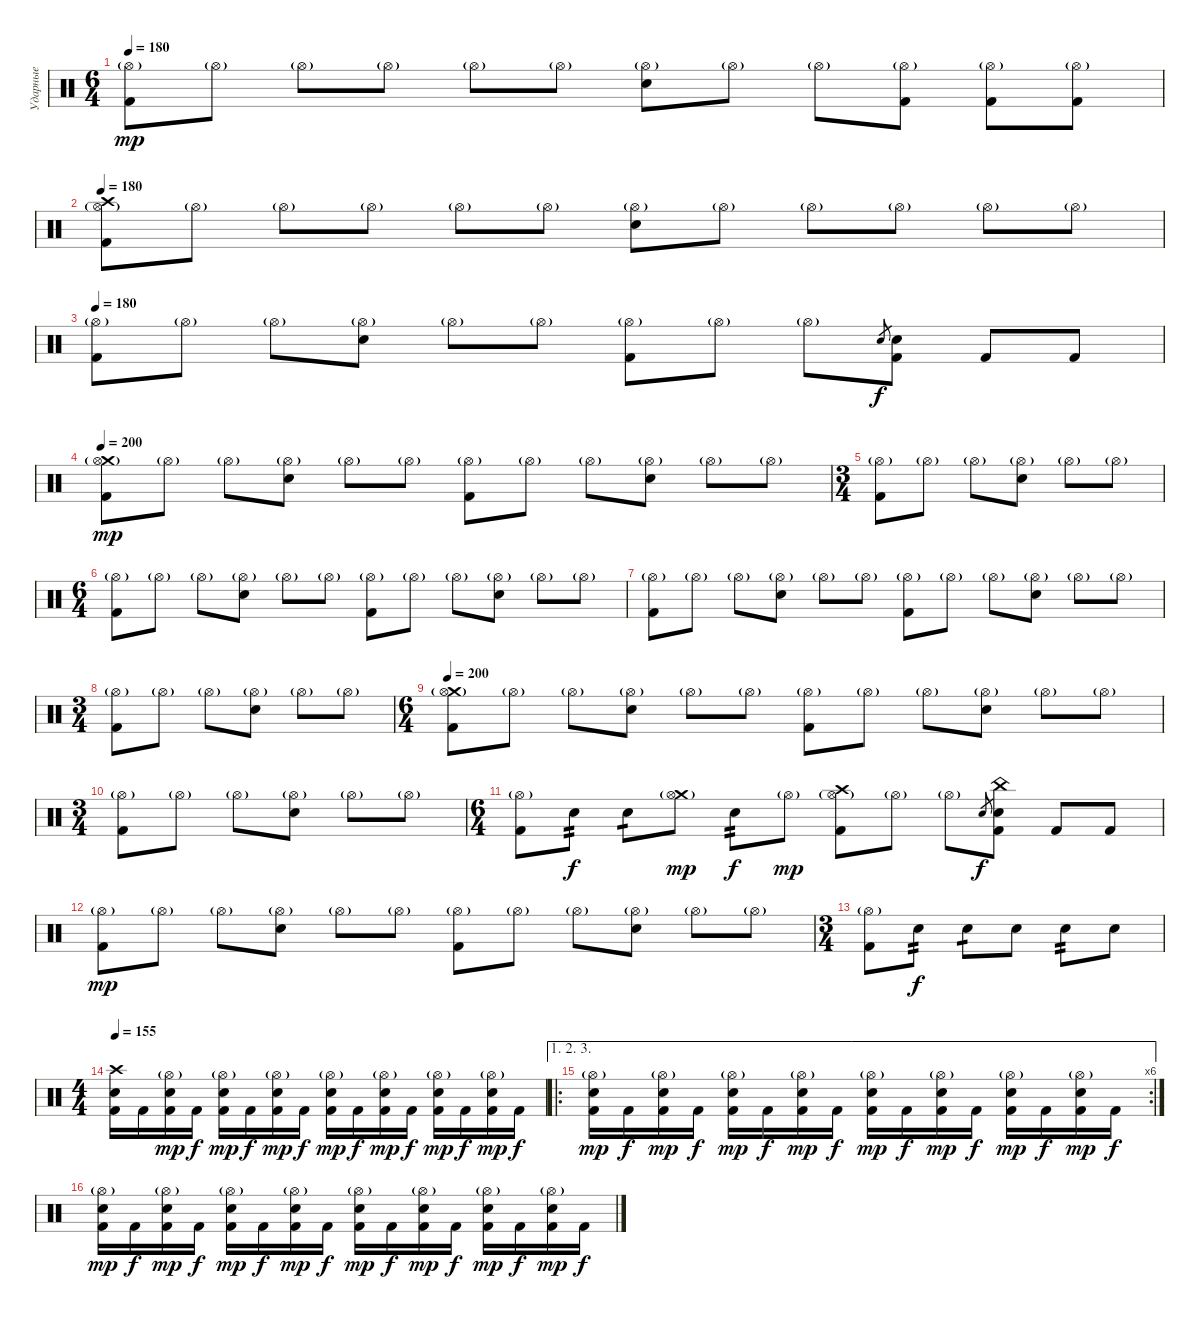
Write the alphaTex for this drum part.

\track ("Ударные" "Ударные") {instrument percussion}
\staff {score}
\articulation defaults
\ts (6 4)
\tempo 180
\clef neutral
\ks c
("Hi-Hat (open)"{g} "Kick (hit) 2").8{dy mp} "Hi-Hat (open)"{g}.8 "Hi-Hat (open)"{g}.8 "Hi-Hat (open)"{g}.8 "Hi-Hat (open)"{g}.8 "Hi-Hat (open)"{g}.8 ("Electric Snare (hit)" "Hi-Hat (open)"{g}).8 "Hi-Hat (open)"{g}.8 "Hi-Hat (open)"{g}.8 ("Hi-Hat (open)"{g} "Kick (hit) 2").8 ("Hi-Hat (open)"{g} "Kick (hit) 2").8 ("Hi-Hat (open)"{g} "Kick (hit) 2").8 |
\tempo 180
("Crash high (hit)" "Hi-Hat (open)"{g} "Kick (hit) 2").8 "Hi-Hat (open)"{g}.8 "Hi-Hat (open)"{g}.8 "Hi-Hat (open)"{g}.8 "Hi-Hat (open)"{g}.8 "Hi-Hat (open)"{g}.8 ("Electric Snare (hit)" "Hi-Hat (open)"{g}).8 "Hi-Hat (open)"{g}.8 "Hi-Hat (open)"{g}.8 "Hi-Hat (open)"{g}.8 "Hi-Hat (open)"{g}.8 "Hi-Hat (open)"{g}.8 |
\tempo 180
("Hi-Hat (open)"{g} "Kick (hit) 2").8 "Hi-Hat (open)"{g}.8 "Hi-Hat (open)"{g}.8 ("Electric Snare (hit)" "Hi-Hat (open)"{g}).8 "Hi-Hat (open)"{g}.8 "Hi-Hat (open)"{g}.8 ("Hi-Hat (open)"{g} "Kick (hit) 2").8 "Hi-Hat (open)"{g}.8 "Hi-Hat (open)"{g}.8 "Electric Snare (hit)".8{gr dy f} ("Electric Snare (hit)" "Kick (hit) 2").8 "Kick (hit) 2".8 "Kick (hit) 2".8 |
\tempo 200
("Crash medium (hit)" "Hi-Hat (open)"{g} "Kick (hit) 2").8{dy mp} "Hi-Hat (open)"{g}.8 "Hi-Hat (open)"{g}.8 ("Electric Snare (hit)" "Hi-Hat (open)"{g}).8 "Hi-Hat (open)"{g}.8 "Hi-Hat (open)"{g}.8 ("Hi-Hat (open)"{g} "Kick (hit) 2").8 "Hi-Hat (open)"{g}.8 "Hi-Hat (open)"{g}.8 ("Electric Snare (hit)" "Hi-Hat (open)"{g}).8 "Hi-Hat (open)"{g}.8 "Hi-Hat (open)"{g}.8 |
\ts (3 4)
("Hi-Hat (open)"{g} "Kick (hit) 2").8 "Hi-Hat (open)"{g}.8 "Hi-Hat (open)"{g}.8 ("Electric Snare (hit)" "Hi-Hat (open)"{g}).8 "Hi-Hat (open)"{g}.8 "Hi-Hat (open)"{g}.8 |
\ts (6 4)
("Hi-Hat (open)"{g} "Kick (hit) 2").8 "Hi-Hat (open)"{g}.8 "Hi-Hat (open)"{g}.8 ("Electric Snare (hit)" "Hi-Hat (open)"{g}).8 "Hi-Hat (open)"{g}.8 "Hi-Hat (open)"{g}.8 ("Hi-Hat (open)"{g} "Kick (hit) 2").8 "Hi-Hat (open)"{g}.8 "Hi-Hat (open)"{g}.8 ("Electric Snare (hit)" "Hi-Hat (open)"{g}).8 "Hi-Hat (open)"{g}.8 "Hi-Hat (open)"{g}.8 |
("Hi-Hat (open)"{g} "Kick (hit) 2").8 "Hi-Hat (open)"{g}.8 "Hi-Hat (open)"{g}.8 ("Electric Snare (hit)" "Hi-Hat (open)"{g}).8 "Hi-Hat (open)"{g}.8 "Hi-Hat (open)"{g}.8 ("Hi-Hat (open)"{g} "Kick (hit) 2").8 "Hi-Hat (open)"{g}.8 "Hi-Hat (open)"{g}.8 ("Electric Snare (hit)" "Hi-Hat (open)"{g}).8 "Hi-Hat (open)"{g}.8 "Hi-Hat (open)"{g}.8 |
\ts (3 4)
("Hi-Hat (open)"{g} "Kick (hit) 2").8 "Hi-Hat (open)"{g}.8 "Hi-Hat (open)"{g}.8 ("Electric Snare (hit)" "Hi-Hat (open)"{g}).8 "Hi-Hat (open)"{g}.8 "Hi-Hat (open)"{g}.8 |
\ts (6 4)
\tempo 200
("Crash medium (hit)" "Hi-Hat (open)"{g} "Kick (hit) 2").8 "Hi-Hat (open)"{g}.8 "Hi-Hat (open)"{g}.8 ("Electric Snare (hit)" "Hi-Hat (open)"{g}).8 "Hi-Hat (open)"{g}.8 "Hi-Hat (open)"{g}.8 ("Hi-Hat (open)"{g} "Kick (hit) 2").8 "Hi-Hat (open)"{g}.8 "Hi-Hat (open)"{g}.8 ("Electric Snare (hit)" "Hi-Hat (open)"{g}).8 "Hi-Hat (open)"{g}.8 "Hi-Hat (open)"{g}.8 |
\ts (3 4)
("Hi-Hat (open)"{g} "Kick (hit) 2").8 "Hi-Hat (open)"{g}.8 "Hi-Hat (open)"{g}.8 ("Electric Snare (hit)" "Hi-Hat (open)"{g}).8 "Hi-Hat (open)"{g}.8 "Hi-Hat (open)"{g}.8 |
\ts (6 4)
("Hi-Hat (open)"{g} "Kick (hit) 2").8 "Electric Snare (hit)".8{tp 2 dy f} "Electric Snare (hit)".8{tp 1} ("Crash medium (hit)" "Hi-Hat (open)"{g}).8{dy mp} "Electric Snare (hit)".8{tp 2 dy f} "Hi-Hat (open)"{g}.8{dy mp} ("Crash high (hit)" "Hi-Hat (open)"{g} "Kick (hit) 2").8 "Hi-Hat (open)"{g}.8 "Hi-Hat (open)"{g}.8 "Electric Snare (hit)".8{gr dy f} ("China (hit)" "Electric Snare (hit)" "Kick (hit) 2").8 "Kick (hit) 2".8 "Kick (hit) 2".8 |
("Hi-Hat (open)"{g} "Kick (hit) 2").8{dy mp} "Hi-Hat (open)"{g}.8 "Hi-Hat (open)"{g}.8 ("Electric Snare (hit)" "Hi-Hat (open)"{g}).8 "Hi-Hat (open)"{g}.8 "Hi-Hat (open)"{g}.8 ("Hi-Hat (open)"{g} "Kick (hit) 2").8 "Hi-Hat (open)"{g}.8 "Hi-Hat (open)"{g}.8 ("Electric Snare (hit)" "Hi-Hat (open)"{g}).8 "Hi-Hat (open)"{g}.8 "Hi-Hat (open)"{g}.8 |
\ts (3 4)
("Hi-Hat (open)"{g} "Kick (hit) 2").8 "Electric Snare (hit)".8{tp 2 dy f} "Electric Snare (hit)".8{tp 1} "Electric Snare (hit)".8 "Electric Snare (hit)".8{tp 2} "Electric Snare (hit)".8 |
\ts (4 4)
\tempo 155
("Crash high (hit)" "Electric Snare (hit)" "Kick (hit) 2").16 "Kick (hit) 2".16 ("Hi-Hat (open)"{g} "Electric Snare (hit)" "Kick (hit) 2").16{dy mp} "Kick (hit) 2".16{dy f} ("Hi-Hat (open)"{g} "Electric Snare (hit)" "Kick (hit) 2").16{dy mp} "Kick (hit) 2".16{dy f} ("Hi-Hat (open)"{g} "Electric Snare (hit)" "Kick (hit) 2").16{dy mp} "Kick (hit) 2".16{dy f} ("Hi-Hat (open)"{g} "Electric Snare (hit)" "Kick (hit) 2").16{dy mp} "Kick (hit) 2".16{dy f} ("Hi-Hat (open)"{g} "Electric Snare (hit)" "Kick (hit) 2").16{dy mp} "Kick (hit) 2".16{dy f} ("Hi-Hat (open)"{g} "Electric Snare (hit)" "Kick (hit) 2").16{dy mp} "Kick (hit) 2".16{dy f} ("Hi-Hat (open)"{g} "Electric Snare (hit)" "Kick (hit) 2").16{dy mp} "Kick (hit) 2".16{dy f} |
\ae (1 2 3)
\ro
\rc 6
("Electric Snare (hit)" "Hi-Hat (open)"{g} "Kick (hit) 2").16{dy mp} "Kick (hit) 2".16{dy f} ("Electric Snare (hit)" "Hi-Hat (open)"{g} "Kick (hit) 2").16{dy mp} "Kick (hit) 2".16{dy f} ("Electric Snare (hit)" "Hi-Hat (open)"{g} "Kick (hit) 2").16{dy mp} "Kick (hit) 2".16{dy f} ("Electric Snare (hit)" "Hi-Hat (open)"{g} "Kick (hit) 2").16{dy mp} "Kick (hit) 2".16{dy f} ("Electric Snare (hit)" "Hi-Hat (open)"{g} "Kick (hit) 2").16{dy mp} "Kick (hit) 2".16{dy f} ("Electric Snare (hit)" "Hi-Hat (open)"{g} "Kick (hit) 2").16{dy mp} "Kick (hit) 2".16{dy f} ("Electric Snare (hit)" "Hi-Hat (open)"{g} "Kick (hit) 2").16{dy mp} "Kick (hit) 2".16{dy f} ("Electric Snare (hit)" "Hi-Hat (open)"{g} "Kick (hit) 2").16{dy mp} "Kick (hit) 2".16{dy f} |
("Electric Snare (hit)" "Hi-Hat (open)"{g} "Kick (hit) 2").16{dy mp} "Kick (hit) 2".16{dy f} ("Electric Snare (hit)" "Hi-Hat (open)"{g} "Kick (hit) 2").16{dy mp} "Kick (hit) 2".16{dy f} ("Electric Snare (hit)" "Hi-Hat (open)"{g} "Kick (hit) 2").16{dy mp} "Kick (hit) 2".16{dy f} ("Electric Snare (hit)" "Hi-Hat (open)"{g} "Kick (hit) 2").16{dy mp} "Kick (hit) 2".16{dy f} ("Electric Snare (hit)" "Hi-Hat (open)"{g} "Kick (hit) 2").16{dy mp} "Kick (hit) 2".16{dy f} ("Electric Snare (hit)" "Hi-Hat (open)"{g} "Kick (hit) 2").16{dy mp} "Kick (hit) 2".16{dy f} ("Electric Snare (hit)" "Hi-Hat (open)"{g} "Kick (hit) 2").16{dy mp} "Kick (hit) 2".16{dy f} ("Electric Snare (hit)" "Hi-Hat (open)"{g} "Kick (hit) 2").16{dy mp} "Kick (hit) 2".16{dy f}
